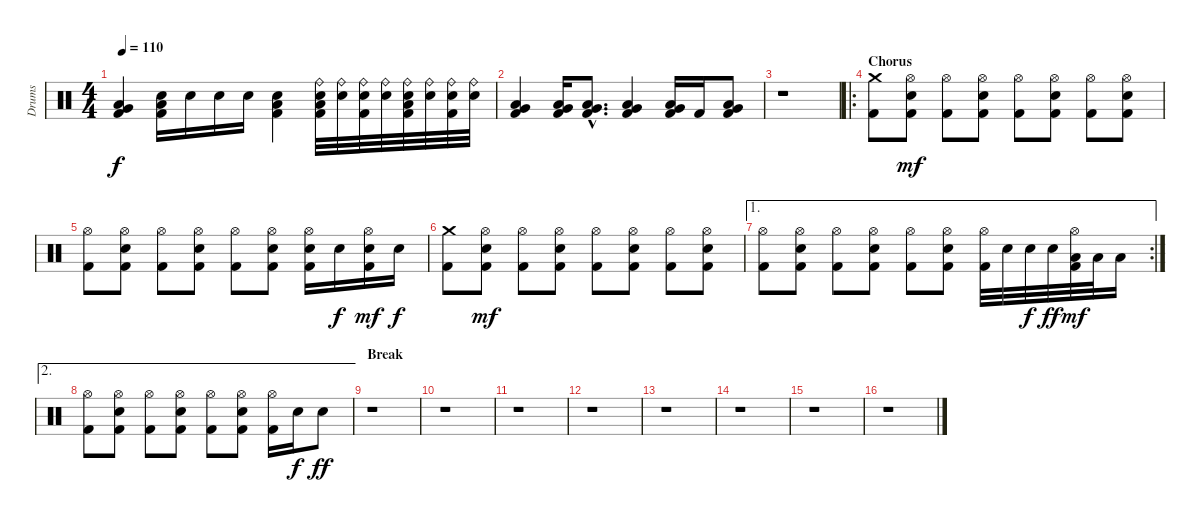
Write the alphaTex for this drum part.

\track ("Drums" "Drums") {instrument percussion}
\staff {score}
\articulation defaults
\ts (4 4)
\tempo 110
\clef neutral
\ks c
("Very Low Tom (hit)" "Low Floor Tom (hit)" "Kick (hit) 2").4{dy f} ("Low Floor Tom (hit)" "Electric Snare (hit)" "Kick (hit) 2").16 "Electric Snare (hit)".16 "Electric Snare (hit)".16 "Electric Snare (hit)".16 ("Low Floor Tom (hit)" "Electric Snare (hit)" "Kick (hit) 2").4 ("Ride (bell)" "Low Floor Tom (hit)" "Electric Snare (hit)" "Kick (hit) 2").32 ("Ride (bell)" "Electric Snare (hit)").32 ("Ride (bell)" "Electric Snare (hit)" "Kick (hit) 2").32 ("Ride (bell)" "Electric Snare (hit)").32 ("Ride (bell)" "Low Floor Tom (hit)" "Electric Snare (hit)" "Kick (hit) 2").32 ("Ride (bell)" "Electric Snare (hit)").32 ("Ride (bell)" "Electric Snare (hit)" "Kick (hit) 2").32 ("Ride (bell)" "Electric Snare (hit)").32 |
("Very Low Tom (hit)" "Low Floor Tom (hit)" "Kick (hit) 2").4 ("Very Low Tom (hit)" "Low Floor Tom (hit)" "Kick (hit) 2").16 ("Very Low Tom (hit)"{hac} "Low Floor Tom (hit)"{hac} "Kick (hit) 2"{hac}).8{d} ("Very Low Tom (hit)" "Low Floor Tom (hit)" "Kick (hit) 2").4 ("Very Low Tom (hit)" "Low Floor Tom (hit)" "Kick (hit) 2").16 "Kick (hit) 2".16 ("Very Low Tom (hit)" "Low Floor Tom (hit)" "Kick (hit) 2").8 |
r.1 |
\ro
\section ("" "Chorus")
("Crash medium (hit)" "Kick (hit) 2").8 ("Hi-Hat (open)" "Electric Snare (hit)" "Kick (hit) 2").8{dy mf} ("Hi-Hat (open)" "Kick (hit) 2").8 ("Hi-Hat (open)" "Electric Snare (hit)" "Kick (hit) 2").8 ("Hi-Hat (open)" "Kick (hit) 2").8 ("Hi-Hat (open)" "Electric Snare (hit)" "Kick (hit) 2").8 ("Hi-Hat (open)" "Kick (hit) 2").8 ("Hi-Hat (open)" "Electric Snare (hit)" "Kick (hit) 2").8 |
("Hi-Hat (open)" "Kick (hit) 2").8 ("Hi-Hat (open)" "Electric Snare (hit)" "Kick (hit) 2").8 ("Hi-Hat (open)" "Kick (hit) 2").8 ("Hi-Hat (open)" "Electric Snare (hit)" "Kick (hit) 2").8 ("Hi-Hat (open)" "Kick (hit) 2").8 ("Hi-Hat (open)" "Electric Snare (hit)" "Kick (hit) 2").8 ("Hi-Hat (open)" "Electric Snare (hit)" "Kick (hit) 2").16 "Electric Snare (hit)".16{dy f} ("Hi-Hat (open)" "Electric Snare (hit)" "Kick (hit) 2").16{dy mf} "Electric Snare (hit)".16{dy f} |
("Crash medium (hit)" "Kick (hit) 2").8 ("Hi-Hat (open)" "Electric Snare (hit)" "Kick (hit) 2").8{dy mf} ("Hi-Hat (open)" "Kick (hit) 2").8 ("Hi-Hat (open)" "Electric Snare (hit)" "Kick (hit) 2").8 ("Hi-Hat (open)" "Kick (hit) 2").8 ("Hi-Hat (open)" "Electric Snare (hit)" "Kick (hit) 2").8 ("Hi-Hat (open)" "Kick (hit) 2").8 ("Hi-Hat (open)" "Electric Snare (hit)" "Kick (hit) 2").8 |
\ae 1
\rc 2
("Hi-Hat (open)" "Kick (hit) 2").8 ("Hi-Hat (open)" "Electric Snare (hit)" "Kick (hit) 2").8 ("Hi-Hat (open)" "Kick (hit) 2").8 ("Hi-Hat (open)" "Electric Snare (hit)" "Kick (hit) 2").8 ("Hi-Hat (open)" "Kick (hit) 2").8 ("Hi-Hat (open)" "Electric Snare (hit)" "Kick (hit) 2").8 ("Hi-Hat (open)" "Kick (hit) 2").32 "Electric Snare (hit)".32 "Electric Snare (hit)".32{dy f} "Electric Snare (hit)".32{dy ff} ("Hi-Hat (open)" "Low Tom (hit)" "Kick (hit) 2").32{dy mf} "Low Tom (hit)".32 "Low Floor Tom (hit)".16 |
\ae 2
("Hi-Hat (open)" "Kick (hit) 2").8 ("Hi-Hat (open)" "Electric Snare (hit)" "Kick (hit) 2").8 ("Hi-Hat (open)" "Kick (hit) 2").8 ("Hi-Hat (open)" "Electric Snare (hit)" "Kick (hit) 2").8 ("Hi-Hat (open)" "Kick (hit) 2").8 ("Hi-Hat (open)" "Electric Snare (hit)" "Kick (hit) 2").8 ("Hi-Hat (open)" "Kick (hit) 2").16 "Electric Snare (hit)".16{dy f} "Electric Snare (hit)".8{dy ff} |
\section ("" "Break")
r.1 |
r.1 |
r.1 |
r.1 |
r.1 |
r.1 |
r.1 |
r.1
